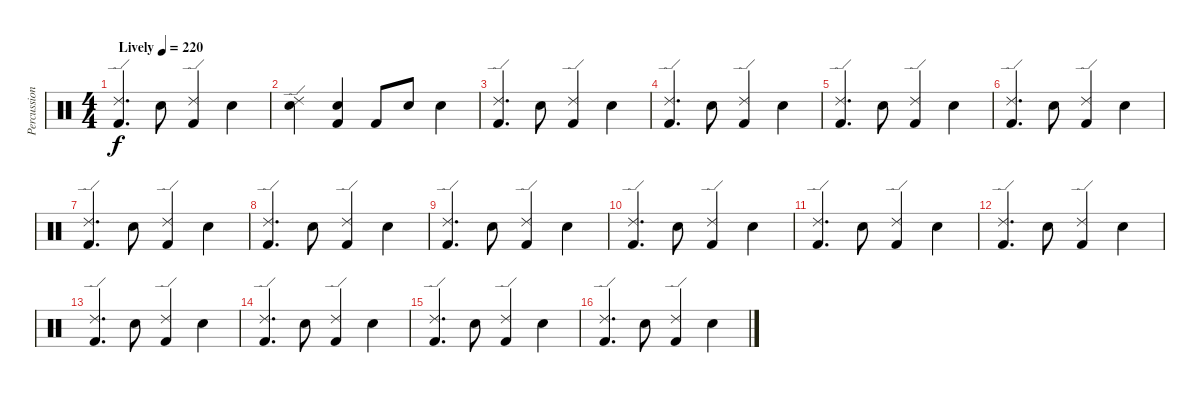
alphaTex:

\track ("Percussion" "Percussion") {instrument percussion}
\staff {score}
\articulation defaults
\ts (4 4)
\tempo (220 "Lively")
\clef neutral
\ks c
("Ride (edge) 2" "Kick (hit) 2").4{d dy f} "Snare (hit) 2".8 ("Ride (edge) 2" "Kick (hit) 2").4 "Snare (hit) 2".4 |
("Ride (edge) 2" "Snare (hit) 2").4 ("Snare (hit) 2" "Kick (hit) 2").4 "Kick (hit) 2".8 "Snare (hit) 2".8 "Snare (hit) 2".4 |
("Ride (edge) 2" "Kick (hit) 2").4{d} "Snare (hit) 2".8 ("Ride (edge) 2" "Kick (hit) 2").4 "Snare (hit) 2".4 |
("Ride (edge) 2" "Kick (hit) 2").4{d} "Snare (hit) 2".8 ("Ride (edge) 2" "Kick (hit) 2").4 "Snare (hit) 2".4 |
("Ride (edge) 2" "Kick (hit) 2").4{d} "Snare (hit) 2".8 ("Ride (edge) 2" "Kick (hit) 2").4 "Snare (hit) 2".4 |
("Ride (edge) 2" "Kick (hit) 2").4{d} "Snare (hit) 2".8 ("Ride (edge) 2" "Kick (hit) 2").4 "Snare (hit) 2".4 |
("Ride (edge) 2" "Kick (hit) 2").4{d} "Snare (hit) 2".8 ("Ride (edge) 2" "Kick (hit) 2").4 "Snare (hit) 2".4 |
("Ride (edge) 2" "Kick (hit) 2").4{d} "Snare (hit) 2".8 ("Ride (edge) 2" "Kick (hit) 2").4 "Snare (hit) 2".4 |
("Ride (edge) 2" "Kick (hit) 2").4{d} "Snare (hit) 2".8 ("Ride (edge) 2" "Kick (hit) 2").4 "Snare (hit) 2".4 |
("Ride (edge) 2" "Kick (hit) 2").4{d} "Snare (hit) 2".8 ("Ride (edge) 2" "Kick (hit) 2").4 "Snare (hit) 2".4 |
("Ride (edge) 2" "Kick (hit) 2").4{d} "Snare (hit) 2".8 ("Ride (edge) 2" "Kick (hit) 2").4 "Snare (hit) 2".4 |
("Ride (edge) 2" "Kick (hit) 2").4{d} "Snare (hit) 2".8 ("Ride (edge) 2" "Kick (hit) 2").4 "Snare (hit) 2".4 |
("Ride (edge) 2" "Kick (hit) 2").4{d} "Snare (hit) 2".8 ("Ride (edge) 2" "Kick (hit) 2").4 "Snare (hit) 2".4 |
("Ride (edge) 2" "Kick (hit) 2").4{d} "Snare (hit) 2".8 ("Ride (edge) 2" "Kick (hit) 2").4 "Snare (hit) 2".4 |
("Ride (edge) 2" "Kick (hit) 2").4{d} "Snare (hit) 2".8 ("Ride (edge) 2" "Kick (hit) 2").4 "Snare (hit) 2".4 |
("Ride (edge) 2" "Kick (hit) 2").4{d} "Snare (hit) 2".8 ("Ride (edge) 2" "Kick (hit) 2").4 "Snare (hit) 2".4
